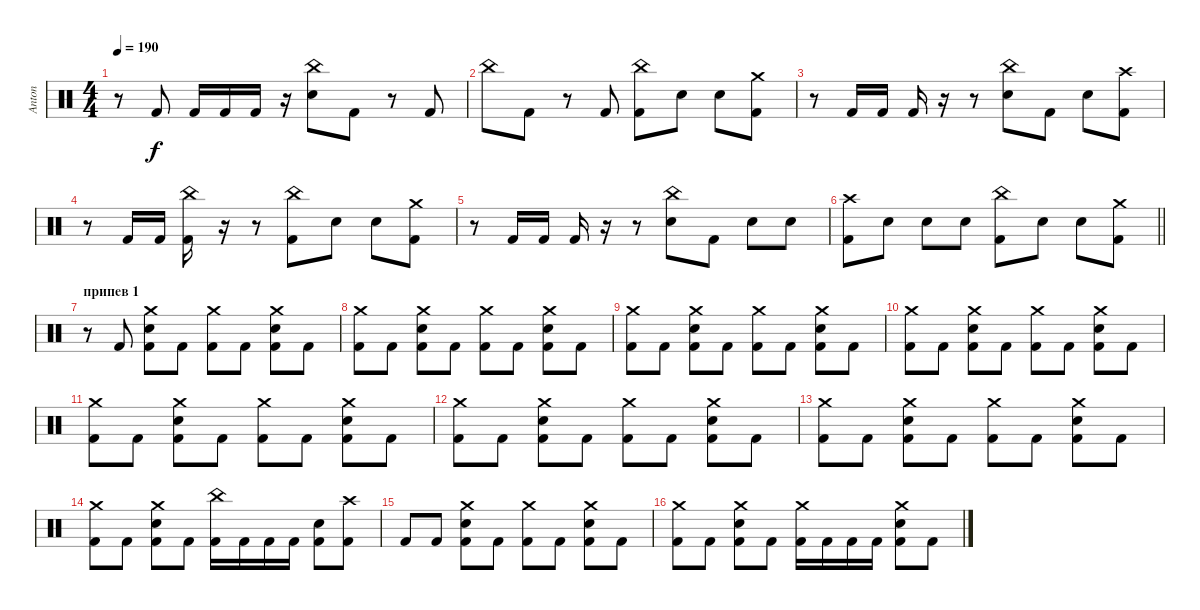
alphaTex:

\track ("Anton" "Anton") {instrument percussion}
\staff {score}
\articulation defaults
\ts (4 4)
\tempo 190
\clef neutral
\ks c
r.8{dy f} "Kick (hit) 2".8 "Kick (hit) 2".16 "Kick (hit) 2".16 "Kick (hit) 2".16 r.16 ("China (hit)" "Electric Snare (hit)").8 "Kick (hit) 2".8 r.8 "Kick (hit) 2".8 |
"China (hit)".8 "Kick (hit) 2".8 r.8 "Kick (hit) 2".8 ("China (hit)" "Kick (hit) 2").8 "Electric Snare (hit)".8 "Electric Snare (hit)".8 ("Crash medium (hit)" "Kick (hit) 2").8 |
r.8 "Kick (hit) 2".16 "Kick (hit) 2".16 "Kick (hit) 2".16 r.16 r.8 ("China (hit)" "Electric Snare (hit)").8 "Kick (hit) 2".8 "Electric Snare (hit)".8 ("Crash high (hit)" "Kick (hit) 2").8 |
r.8 "Kick (hit) 2".16 "Kick (hit) 2".16 ("China (hit)" "Kick (hit) 2").16 r.16 r.8 ("China (hit)" "Kick (hit) 2").8 "Electric Snare (hit)".8 "Electric Snare (hit)".8 ("Crash medium (hit)" "Kick (hit) 2").8 |
r.8 "Kick (hit) 2".16 "Kick (hit) 2".16 "Kick (hit) 2".16 r.16 r.8 ("China (hit)" "Electric Snare (hit)").8 "Kick (hit) 2".8 "Electric Snare (hit)".8 "Electric Snare (hit)".8 |
\barLineRight lightlight
("Crash high (hit)" "Kick (hit) 2").8 "Electric Snare (hit)".8 "Electric Snare (hit)".8 "Electric Snare (hit)".8 ("China (hit)" "Kick (hit) 2").8 "Electric Snare (hit)".8 "Electric Snare (hit)".8 ("Crash medium (hit)" "Kick (hit) 2").8 |
\section ("" "припев 1")
r.8 "Kick (hit) 2".8 ("Crash medium (hit)" "Electric Snare (hit)" "Kick (hit) 2").8 "Kick (hit) 2".8 ("Crash medium (hit)" "Kick (hit) 2").8 "Kick (hit) 2".8 ("Crash medium (hit)" "Electric Snare (hit)" "Kick (hit) 2").8 "Kick (hit) 2".8 |
("Crash medium (hit)" "Kick (hit) 2").8 "Kick (hit) 2".8 ("Crash medium (hit)" "Electric Snare (hit)" "Kick (hit) 2").8 "Kick (hit) 2".8 ("Crash medium (hit)" "Kick (hit) 2").8 "Kick (hit) 2".8 ("Crash medium (hit)" "Electric Snare (hit)" "Kick (hit) 2").8 "Kick (hit) 2".8 |
("Crash medium (hit)" "Kick (hit) 2").8 "Kick (hit) 2".8 ("Crash medium (hit)" "Electric Snare (hit)" "Kick (hit) 2").8 "Kick (hit) 2".8 ("Crash medium (hit)" "Kick (hit) 2").8 "Kick (hit) 2".8 ("Crash medium (hit)" "Electric Snare (hit)" "Kick (hit) 2").8 "Kick (hit) 2".8 |
("Crash medium (hit)" "Kick (hit) 2").8 "Kick (hit) 2".8 ("Crash medium (hit)" "Electric Snare (hit)" "Kick (hit) 2").8 "Kick (hit) 2".8 ("Crash medium (hit)" "Kick (hit) 2").8 "Kick (hit) 2".8 ("Crash medium (hit)" "Electric Snare (hit)" "Kick (hit) 2").8 "Kick (hit) 2".8 |
("Crash medium (hit)" "Kick (hit) 2").8 "Kick (hit) 2".8 ("Crash medium (hit)" "Electric Snare (hit)" "Kick (hit) 2").8 "Kick (hit) 2".8 ("Crash medium (hit)" "Kick (hit) 2").8 "Kick (hit) 2".8 ("Crash medium (hit)" "Electric Snare (hit)" "Kick (hit) 2").8 "Kick (hit) 2".8 |
("Crash medium (hit)" "Kick (hit) 2").8 "Kick (hit) 2".8 ("Crash medium (hit)" "Electric Snare (hit)" "Kick (hit) 2").8 "Kick (hit) 2".8 ("Crash medium (hit)" "Kick (hit) 2").8 "Kick (hit) 2".8 ("Crash medium (hit)" "Electric Snare (hit)" "Kick (hit) 2").8 "Kick (hit) 2".8 |
("Crash medium (hit)" "Kick (hit) 2").8 "Kick (hit) 2".8 ("Crash medium (hit)" "Electric Snare (hit)" "Kick (hit) 2").8 "Kick (hit) 2".8 ("Crash medium (hit)" "Kick (hit) 2").8 "Kick (hit) 2".8 ("Crash medium (hit)" "Electric Snare (hit)" "Kick (hit) 2").8 "Kick (hit) 2".8 |
("Crash medium (hit)" "Kick (hit) 2").8 "Kick (hit) 2".8 ("Crash medium (hit)" "Electric Snare (hit)" "Kick (hit) 2").8 "Kick (hit) 2".8 ("China (hit)" "Kick (hit) 2").16 "Kick (hit) 2".16 "Kick (hit) 2".16 "Kick (hit) 2".16 ("Electric Snare (hit)" "Kick (hit) 2").8 ("Crash high (hit)" "Kick (hit) 2").8 |
"Kick (hit) 2".8 "Kick (hit) 2".8 ("Crash medium (hit)" "Electric Snare (hit)" "Kick (hit) 2").8 "Kick (hit) 2".8 ("Crash medium (hit)" "Kick (hit) 2").8 "Kick (hit) 2".8 ("Crash medium (hit)" "Electric Snare (hit)" "Kick (hit) 2").8 "Kick (hit) 2".8 |
("Crash medium (hit)" "Kick (hit) 2").8 "Kick (hit) 2".8 ("Crash medium (hit)" "Electric Snare (hit)" "Kick (hit) 2").8 "Kick (hit) 2".8 ("Crash medium (hit)" "Kick (hit) 2").16 "Kick (hit) 2".16 "Kick (hit) 2".16 "Kick (hit) 2".16 ("Crash medium (hit)" "Electric Snare (hit)" "Kick (hit) 2").8 "Kick (hit) 2".8
